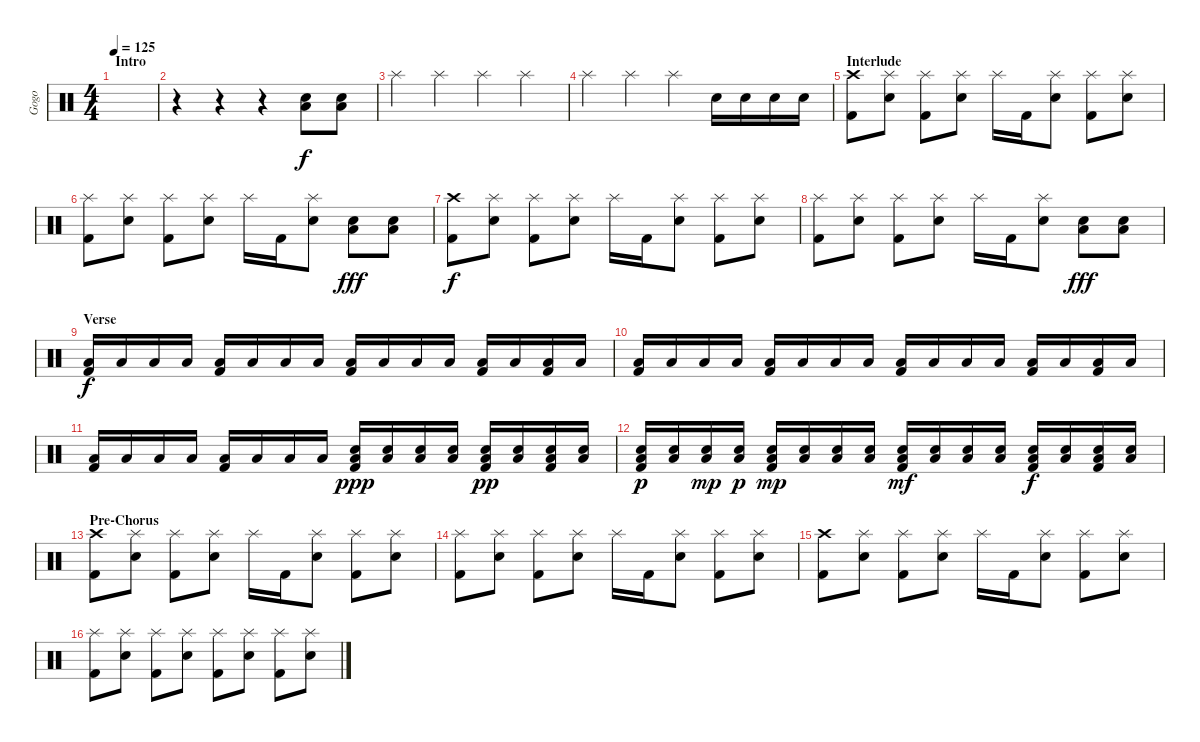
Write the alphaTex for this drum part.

\track ("Gogo" "Gogo") {instrument percussion}
\staff {score}
\articulation defaults
\ts (4 4)
\section ("" "Intro")
\tempo 125
\clef neutral
\ks c
|
r.4 r.4 r.4 ("Electric Snare (hit)" "Low Floor Tom (hit)").8 ("Electric Snare (hit)" "Low Floor Tom (hit)").8 |
"Splash (hit)".4{dy f} "Splash (hit)".4 "Splash (hit)".4 "Splash (hit)".4 |
"Splash (hit)".4 "Splash (hit)".4 "Splash (hit)".4 "Electric Snare (hit)".16 "Electric Snare (hit)".16 "Electric Snare (hit)".16 "Electric Snare (hit)".16 |
\section ("" "Interlude")
("Crash high (hit)" "Kick (hit) 2").8 ("Splash (hit)" "Electric Snare (hit)").8 ("Splash (hit)" "Kick (hit) 2").8 ("Splash (hit)" "Electric Snare (hit)").8 "Splash (hit)".16 "Kick (hit) 2".16 ("Splash (hit)" "Electric Snare (hit)").8 ("Splash (hit)" "Kick (hit) 2").8 ("Splash (hit)" "Electric Snare (hit)").8 |
("Splash (hit)" "Kick (hit) 2").8 ("Splash (hit)" "Electric Snare (hit)").8 ("Splash (hit)" "Kick (hit) 2").8 ("Splash (hit)" "Electric Snare (hit)").8 "Splash (hit)".16 "Kick (hit) 2".16 ("Splash (hit)" "Electric Snare (hit)").8 ("Electric Snare (hit)" "Low Floor Tom (hit)").8{dy fff} ("Electric Snare (hit)" "Low Floor Tom (hit)").8 |
("Crash high (hit)" "Kick (hit) 2").8{dy f} ("Splash (hit)" "Electric Snare (hit)").8 ("Splash (hit)" "Kick (hit) 2").8 ("Splash (hit)" "Electric Snare (hit)").8 "Splash (hit)".16 "Kick (hit) 2".16 ("Splash (hit)" "Electric Snare (hit)").8 ("Splash (hit)" "Kick (hit) 2").8 ("Splash (hit)" "Electric Snare (hit)").8 |
("Splash (hit)" "Kick (hit) 2").8 ("Splash (hit)" "Electric Snare (hit)").8 ("Splash (hit)" "Kick (hit) 2").8 ("Splash (hit)" "Electric Snare (hit)").8 "Splash (hit)".16 "Kick (hit) 2".16 ("Splash (hit)" "Electric Snare (hit)").8 ("Electric Snare (hit)" "Low Floor Tom (hit)").8{dy fff} ("Electric Snare (hit)" "Low Floor Tom (hit)").8 |
\section ("" "Verse")
("Low Floor Tom (hit)" "Kick (hit) 2").16{dy f} "Low Floor Tom (hit)".16 "Low Floor Tom (hit)".16 "Low Floor Tom (hit)".16 ("Low Floor Tom (hit)" "Kick (hit) 2").16 "Low Floor Tom (hit)".16 "Low Floor Tom (hit)".16 "Low Floor Tom (hit)".16 ("Low Floor Tom (hit)" "Kick (hit) 2").16 "Low Floor Tom (hit)".16 "Low Floor Tom (hit)".16 "Low Floor Tom (hit)".16 ("Low Floor Tom (hit)" "Kick (hit) 2").16 "Low Floor Tom (hit)".16 ("Low Floor Tom (hit)" "Kick (hit) 2").16 "Low Floor Tom (hit)".16 |
("Low Floor Tom (hit)" "Kick (hit) 2").16 "Low Floor Tom (hit)".16 "Low Floor Tom (hit)".16 "Low Floor Tom (hit)".16 ("Low Floor Tom (hit)" "Kick (hit) 2").16 "Low Floor Tom (hit)".16 "Low Floor Tom (hit)".16 "Low Floor Tom (hit)".16 ("Low Floor Tom (hit)" "Kick (hit) 2").16 "Low Floor Tom (hit)".16 "Low Floor Tom (hit)".16 "Low Floor Tom (hit)".16 ("Low Floor Tom (hit)" "Kick (hit) 2").16 "Low Floor Tom (hit)".16 ("Low Floor Tom (hit)" "Kick (hit) 2").16 "Low Floor Tom (hit)".16 |
("Low Floor Tom (hit)" "Kick (hit) 2").16 "Low Floor Tom (hit)".16 "Low Floor Tom (hit)".16 "Low Floor Tom (hit)".16 ("Low Floor Tom (hit)" "Kick (hit) 2").16 "Low Floor Tom (hit)".16 "Low Floor Tom (hit)".16 "Low Floor Tom (hit)".16 ("Electric Snare (hit)" "Low Floor Tom (hit)" "Kick (hit) 2").16{dy ppp} ("Electric Snare (hit)" "Low Floor Tom (hit)").16 ("Electric Snare (hit)" "Low Floor Tom (hit)").16 ("Electric Snare (hit)" "Low Floor Tom (hit)").16 ("Electric Snare (hit)" "Low Floor Tom (hit)" "Kick (hit) 2").16{dy pp} ("Electric Snare (hit)" "Low Floor Tom (hit)").16 ("Electric Snare (hit)" "Low Floor Tom (hit)" "Kick (hit) 2").16 ("Electric Snare (hit)" "Low Floor Tom (hit)").16 |
("Electric Snare (hit)" "Low Floor Tom (hit)" "Kick (hit) 2").16{dy p} ("Electric Snare (hit)" "Low Floor Tom (hit)").16 ("Electric Snare (hit)" "Low Floor Tom (hit)").16{dy mp} ("Electric Snare (hit)" "Low Floor Tom (hit)").16{dy p} ("Electric Snare (hit)" "Low Floor Tom (hit)" "Kick (hit) 2").16{dy mp} ("Electric Snare (hit)" "Low Floor Tom (hit)").16 ("Electric Snare (hit)" "Low Floor Tom (hit)").16 ("Electric Snare (hit)" "Low Floor Tom (hit)").16 ("Electric Snare (hit)" "Low Floor Tom (hit)" "Kick (hit) 2").16{dy mf} ("Electric Snare (hit)" "Low Floor Tom (hit)").16 ("Electric Snare (hit)" "Low Floor Tom (hit)").16 ("Electric Snare (hit)" "Low Floor Tom (hit)").16 ("Electric Snare (hit)" "Low Floor Tom (hit)" "Kick (hit) 2").16{dy f} ("Electric Snare (hit)" "Low Floor Tom (hit)").16 ("Electric Snare (hit)" "Low Floor Tom (hit)" "Kick (hit) 2").16 ("Electric Snare (hit)" "Low Floor Tom (hit)").16 |
\section ("" "Pre-Chorus")
("Crash high (hit)" "Kick (hit) 2").8 ("Splash (hit)" "Electric Snare (hit)").8 ("Splash (hit)" "Kick (hit) 2").8 ("Splash (hit)" "Electric Snare (hit)").8 "Splash (hit)".16 "Kick (hit) 2".16 ("Splash (hit)" "Electric Snare (hit)").8 ("Splash (hit)" "Kick (hit) 2").8 ("Splash (hit)" "Electric Snare (hit)").8 |
("Splash (hit)" "Kick (hit) 2").8 ("Splash (hit)" "Electric Snare (hit)").8 ("Splash (hit)" "Kick (hit) 2").8 ("Splash (hit)" "Electric Snare (hit)").8 "Splash (hit)".16 "Kick (hit) 2".16 ("Splash (hit)" "Electric Snare (hit)").8 ("Splash (hit)" "Kick (hit) 2").8 ("Splash (hit)" "Electric Snare (hit)").8 |
("Crash high (hit)" "Kick (hit) 2").8 ("Splash (hit)" "Electric Snare (hit)").8 ("Splash (hit)" "Kick (hit) 2").8 ("Splash (hit)" "Electric Snare (hit)").8 "Splash (hit)".16 "Kick (hit) 2".16 ("Splash (hit)" "Electric Snare (hit)").8 ("Splash (hit)" "Kick (hit) 2").8 ("Splash (hit)" "Electric Snare (hit)").8 |
("Splash (hit)" "Kick (hit) 2").8 ("Splash (hit)" "Electric Snare (hit)").8 ("Splash (hit)" "Kick (hit) 2").8 ("Splash (hit)" "Electric Snare (hit)").8 ("Splash (hit)" "Kick (hit) 2").8 ("Splash (hit)" "Electric Snare (hit)").8 ("Splash (hit)" "Kick (hit) 2").8 ("Splash (hit)" "Electric Snare (hit)").8
